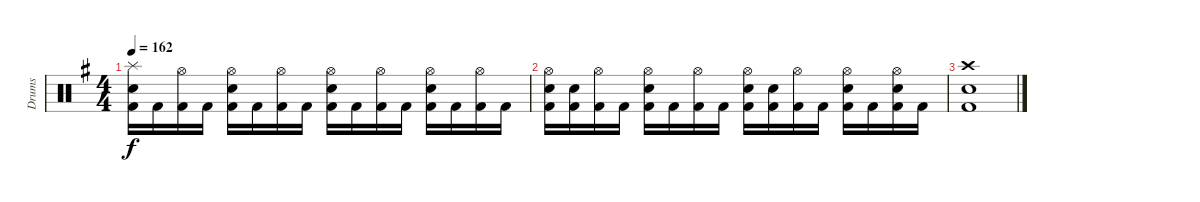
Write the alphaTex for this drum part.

\track ("Drums" "Drums") {instrument percussion}
\staff {score}
\articulation defaults
\ts (4 4)
\tempo 162
\clef neutral
\ks g
("Splash (hit)" "Electric Snare (hit)" "Kick (hit) 2").16{dy f} "Kick (hit) 2".16 ("Hi-Hat (open)" "Kick (hit) 2").16 "Kick (hit) 2".16 ("Hi-Hat (open)" "Electric Snare (hit)" "Kick (hit) 2").16 "Kick (hit) 2".16 ("Hi-Hat (open)" "Kick (hit) 2").16 "Kick (hit) 2".16 ("Hi-Hat (open)" "Electric Snare (hit)" "Kick (hit) 2").16 "Kick (hit) 2".16 ("Hi-Hat (open)" "Kick (hit) 2").16 "Kick (hit) 2".16 ("Hi-Hat (open)" "Electric Snare (hit)" "Kick (hit) 2").16 "Kick (hit) 2".16 ("Hi-Hat (open)" "Kick (hit) 2").16 "Kick (hit) 2".16 |
("Hi-Hat (open)" "Electric Snare (hit)" "Kick (hit) 2").16 ("Electric Snare (hit)" "Kick (hit) 2").16 ("Hi-Hat (open)" "Kick (hit) 2").16 "Kick (hit) 2".16 ("Hi-Hat (open)" "Electric Snare (hit)" "Kick (hit) 2").16 "Kick (hit) 2".16 ("Hi-Hat (open)" "Kick (hit) 2").16 "Kick (hit) 2".16 ("Hi-Hat (open)" "Electric Snare (hit)" "Kick (hit) 2").16 ("Electric Snare (hit)" "Kick (hit) 2").16 ("Hi-Hat (open)" "Kick (hit) 2").16 "Kick (hit) 2".16 ("Hi-Hat (open)" "Electric Snare (hit)" "Kick (hit) 2").16 "Kick (hit) 2".16 ("Hi-Hat (open)" "Electric Snare (hit)" "Kick (hit) 2").16 "Kick (hit) 2".16 |
("Crash high (hit)" "Electric Snare (hit)" "Kick (hit) 2").1
